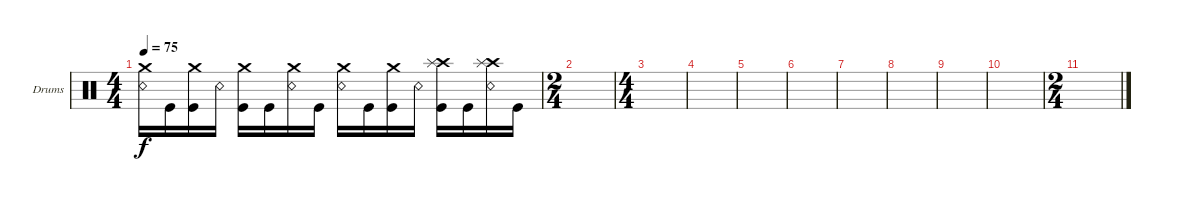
\defaultSystemsLayout 4
\bracketExtendMode groupsimilarinstruments
\firstSystemTrackNameOrientation horizontal
\otherSystemsTrackNameOrientation horizontal
\track ("Drumkit" "Drums") {instrument percussion}
\staff {score}
\articulation defaults
\ts (4 4)
\tempo 75
\clef neutral
\ks c
("Snare (rim shot)" "Crash medium (hit)").16{dy f} "Kick (hit)".16 ("Kick (hit)" "Crash medium (hit)").16 "Snare (rim shot)".16 ("Kick (hit)" "Crash medium (hit)").16 "Kick (hit)".16 ("Snare (rim shot)" "Crash medium (hit)").16 "Kick (hit)".16 ("Snare (rim shot)" "Crash medium (hit)").16 "Kick (hit)".16 ("Kick (hit)" "Crash medium (hit)").16 "Snare (rim shot)".16 ("Kick (hit)" "Crash high (hit)" "Splash (hit)").16 "Kick (hit)".16 ("Snare (rim shot)" "Crash high (hit)" "Splash (hit)").16 "Kick (hit)".16 |
\ts (2 4)
|
\ts (4 4)
|
|
|
|
|
|
|
|
\ts (2 4)
